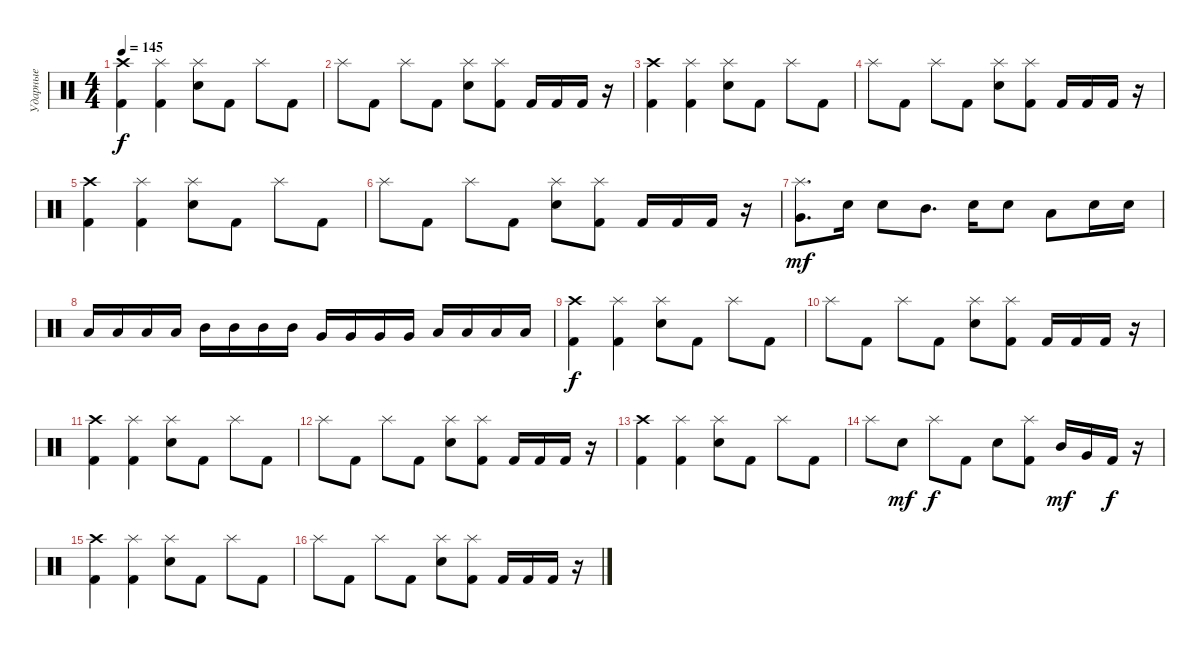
\track ("Ударные" "Ударные") {instrument percussion}
\staff {score}
\articulation defaults
\ts (4 4)
\tempo 145
\clef neutral
\ks c
("Crash high (hit)" "Kick (hit) 2").4{dy f} ("Splash (hit)" "Kick (hit) 2").4 ("Splash (hit)" "Snare (hit) 2").8 "Kick (hit) 2".8 "Splash (hit)".8 "Kick (hit) 2".8 |
"Splash (hit)".8 "Kick (hit) 2".8 "Splash (hit)".8 "Kick (hit) 2".8 ("Splash (hit)" "Snare (hit) 2").8 ("Splash (hit)" "Kick (hit) 2").8 "Kick (hit) 2".16 "Kick (hit) 2".16 "Kick (hit) 2".16 r.16 |
("Crash high (hit)" "Kick (hit) 2").4 ("Splash (hit)" "Kick (hit) 2").4 ("Splash (hit)" "Snare (hit) 2").8 "Kick (hit) 2".8 "Splash (hit)".8 "Kick (hit) 2".8 |
"Splash (hit)".8 "Kick (hit) 2".8 "Splash (hit)".8 "Kick (hit) 2".8 ("Splash (hit)" "Snare (hit) 2").8 ("Splash (hit)" "Kick (hit) 2").8 "Kick (hit) 2".16 "Kick (hit) 2".16 "Kick (hit) 2".16 r.16 |
("Crash high (hit)" "Kick (hit) 2").4 ("Splash (hit)" "Kick (hit) 2").4 ("Splash (hit)" "Snare (hit) 2").8 "Kick (hit) 2".8 "Splash (hit)".8 "Kick (hit) 2".8 |
"Splash (hit)".8 "Kick (hit) 2".8 "Splash (hit)".8 "Kick (hit) 2".8 ("Splash (hit)" "Snare (hit) 2").8 ("Splash (hit)" "Kick (hit) 2").8 "Kick (hit) 2".16 "Kick (hit) 2".16 "Kick (hit) 2".16 r.16 |
("Splash (hit)" "Very Low Tom (hit)").8{d dy mf} "Snare (hit) 2".16 "Snare (hit) 2".8 "Mid Tom (hit)".8{d} "Snare (hit) 2".16 "Snare (hit) 2".8 "Low Tom (hit)".8 "Snare (hit) 2".16 "Snare (hit) 2".16 |
"Low Tom (hit)".16 "Low Tom (hit)".16 "Low Tom (hit)".16 "Low Tom (hit)".16 "Mid Tom (hit)".16 "Mid Tom (hit)".16 "Mid Tom (hit)".16 "Mid Tom (hit)".16 "Very Low Tom (hit)".16 "Very Low Tom (hit)".16 "Very Low Tom (hit)".16 "Very Low Tom (hit)".16 "Low Floor Tom (hit)".16 "Low Floor Tom (hit)".16 "Low Floor Tom (hit)".16 "Low Floor Tom (hit)".16 |
("Crash high (hit)" "Kick (hit) 2").4{dy f} ("Splash (hit)" "Kick (hit) 2").4 ("Splash (hit)" "Snare (hit) 2").8 "Kick (hit) 2".8 "Splash (hit)".8 "Kick (hit) 2".8 |
"Splash (hit)".8 "Kick (hit) 2".8 "Splash (hit)".8 "Kick (hit) 2".8 ("Splash (hit)" "Snare (hit) 2").8 ("Splash (hit)" "Kick (hit) 2").8 "Kick (hit) 2".16 "Kick (hit) 2".16 "Kick (hit) 2".16 r.16 |
("Crash high (hit)" "Kick (hit) 2").4 ("Splash (hit)" "Kick (hit) 2").4 ("Splash (hit)" "Snare (hit) 2").8 "Kick (hit) 2".8 "Splash (hit)".8 "Kick (hit) 2".8 |
"Splash (hit)".8 "Kick (hit) 2".8 "Splash (hit)".8 "Kick (hit) 2".8 ("Splash (hit)" "Snare (hit) 2").8 ("Splash (hit)" "Kick (hit) 2").8 "Kick (hit) 2".16 "Kick (hit) 2".16 "Kick (hit) 2".16 r.16 |
("Crash high (hit)" "Kick (hit) 2").4 ("Splash (hit)" "Kick (hit) 2").4 ("Splash (hit)" "Snare (hit) 2").8 "Kick (hit) 2".8 "Splash (hit)".8 "Kick (hit) 2".8 |
"Splash (hit)".8 "Snare (hit) 2".8{dy mf} "Splash (hit)".8{dy f} "Kick (hit) 2".8 "Snare (hit) 2".8 ("Splash (hit)" "Kick (hit) 2").8 "Mid Tom (hit)".16{dy mf} "Very Low Tom (hit)".16 "Kick (hit) 2".16{dy f} r.16 |
("Crash high (hit)" "Kick (hit) 2").4 ("Splash (hit)" "Kick (hit) 2").4 ("Splash (hit)" "Snare (hit) 2").8 "Kick (hit) 2".8 "Splash (hit)".8 "Kick (hit) 2".8 |
"Splash (hit)".8 "Kick (hit) 2".8 "Splash (hit)".8 "Kick (hit) 2".8 ("Splash (hit)" "Snare (hit) 2").8 ("Splash (hit)" "Kick (hit) 2").8 "Kick (hit) 2".16 "Kick (hit) 2".16 "Kick (hit) 2".16 r.16
